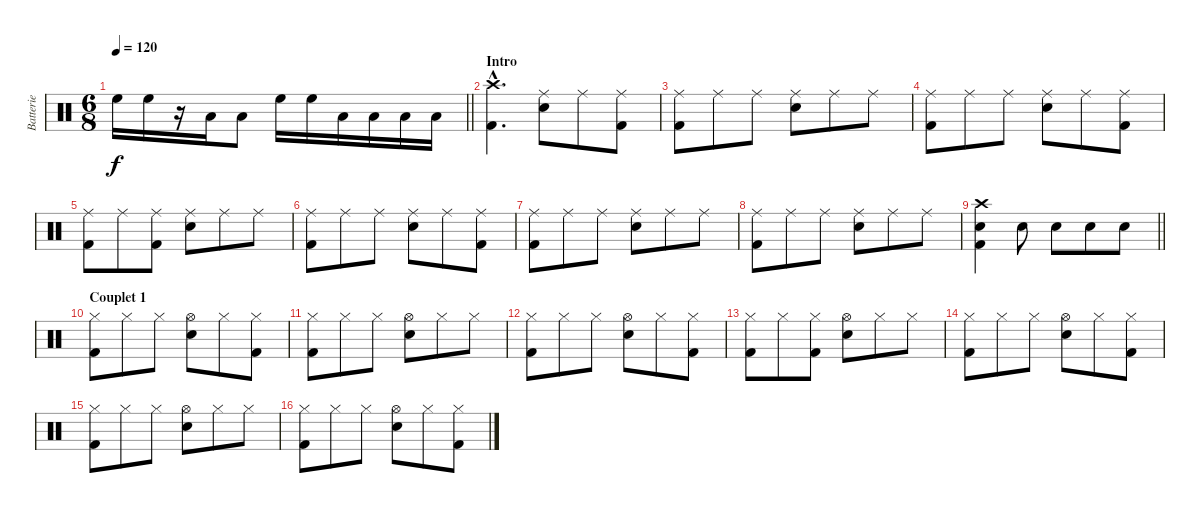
\track ("Batterie" "Batterie") {instrument percussion}
\staff {score}
\articulation defaults
\ts (6 8)
\tempo 120
\clef neutral
\barLineRight lightlight
\ks c "High Floor Tom (hit)".16{dy f} "High Floor Tom (hit)".16
r.16 "Low Tom (hit)".16 "Low Tom (hit)".8 "High Floor Tom (hit)".16 "High Floor Tom (hit)".16 "Low Tom (hit)".16 "Low Tom (hit)".16 "Low Floor Tom (hit)".16 "Low Floor Tom (hit)".16 |
\section ("" "Intro")
("Crash high (hit)"{hac} "Kick (hit) 2"{hac}).4{d} ("Ride (middle)" "Snare (hit) 2").8 "Ride (middle)".8 ("Ride (middle)" "Kick (hit) 2").8 |
("Ride (middle)" "Kick (hit) 2").8 "Ride (middle)".8 "Ride (middle)".8 ("Ride (middle)" "Snare (hit) 2").8 "Ride (middle)".8 "Ride (middle)".8 |
("Ride (middle)" "Kick (hit) 2").8 "Ride (middle)".8 "Ride (middle)".8 ("Ride (middle)" "Snare (hit) 2").8 "Ride (middle)".8 ("Ride (middle)" "Kick (hit) 2").8 |
("Ride (middle)" "Kick (hit) 2").8 "Ride (middle)".8 ("Ride (middle)" "Kick (hit) 2").8 ("Ride (middle)" "Snare (hit) 2").8 "Ride (middle)".8 "Ride (middle)".8 |
("Ride (middle)" "Kick (hit) 2").8 "Ride (middle)".8 "Ride (middle)".8 ("Ride (middle)" "Snare (hit) 2").8 "Ride (middle)".8 ("Ride (middle)" "Kick (hit) 2").8 |
("Ride (middle)" "Kick (hit) 2").8 "Ride (middle)".8 "Ride (middle)".8 ("Ride (middle)" "Snare (hit) 2").8 "Ride (middle)".8 "Ride (middle)".8 |
("Ride (middle)" "Kick (hit) 2").8 "Ride (middle)".8 "Ride (middle)".8 ("Ride (middle)" "Snare (hit) 2").8 "Ride (middle)".8 "Ride (middle)".8 |
\barLineRight lightlight
("Crash high (hit)" "Snare (hit) 2" "Kick (hit) 2").4 "Snare (hit) 2".8 "Snare (hit) 2".8 "Snare (hit) 2".8 "Snare (hit) 2".8 |
\section ("" "Couplet 1")
("Hi-Hat (closed)" "Kick (hit) 2").8 "Hi-Hat (closed)".8 "Hi-Hat (closed)".8 ("Hi-Hat (open)" "Snare (hit) 2").8 "Hi-Hat (closed)".8 ("Hi-Hat (closed)" "Kick (hit) 2").8 |
("Hi-Hat (closed)" "Kick (hit) 2").8 "Hi-Hat (closed)".8 "Hi-Hat (closed)".8 ("Hi-Hat (open)" "Snare (hit) 2").8 "Hi-Hat (closed)".8 "Hi-Hat (closed)".8 |
("Hi-Hat (closed)" "Kick (hit) 2").8 "Hi-Hat (closed)".8 "Hi-Hat (closed)".8 ("Hi-Hat (open)" "Snare (hit) 2").8 "Hi-Hat (closed)".8 ("Hi-Hat (closed)" "Kick (hit) 2").8 |
("Hi-Hat (closed)" "Kick (hit) 2").8 "Hi-Hat (closed)".8 ("Hi-Hat (closed)" "Kick (hit) 2").8 ("Hi-Hat (open)" "Snare (hit) 2").8 "Hi-Hat (closed)".8 "Hi-Hat (closed)".8 |
("Hi-Hat (closed)" "Kick (hit) 2").8 "Hi-Hat (closed)".8 "Hi-Hat (closed)".8 ("Hi-Hat (open)" "Snare (hit) 2").8 "Hi-Hat (closed)".8 ("Hi-Hat (closed)" "Kick (hit) 2").8 |
("Hi-Hat (closed)" "Kick (hit) 2").8 "Hi-Hat (closed)".8 "Hi-Hat (closed)".8 ("Hi-Hat (open)" "Snare (hit) 2").8 "Hi-Hat (closed)".8 "Hi-Hat (closed)".8 |
("Hi-Hat (closed)" "Kick (hit) 2").8 "Hi-Hat (closed)".8 "Hi-Hat (closed)".8 ("Hi-Hat (open)" "Snare (hit) 2").8 "Hi-Hat (closed)".8 ("Hi-Hat (closed)" "Kick (hit) 2").8
